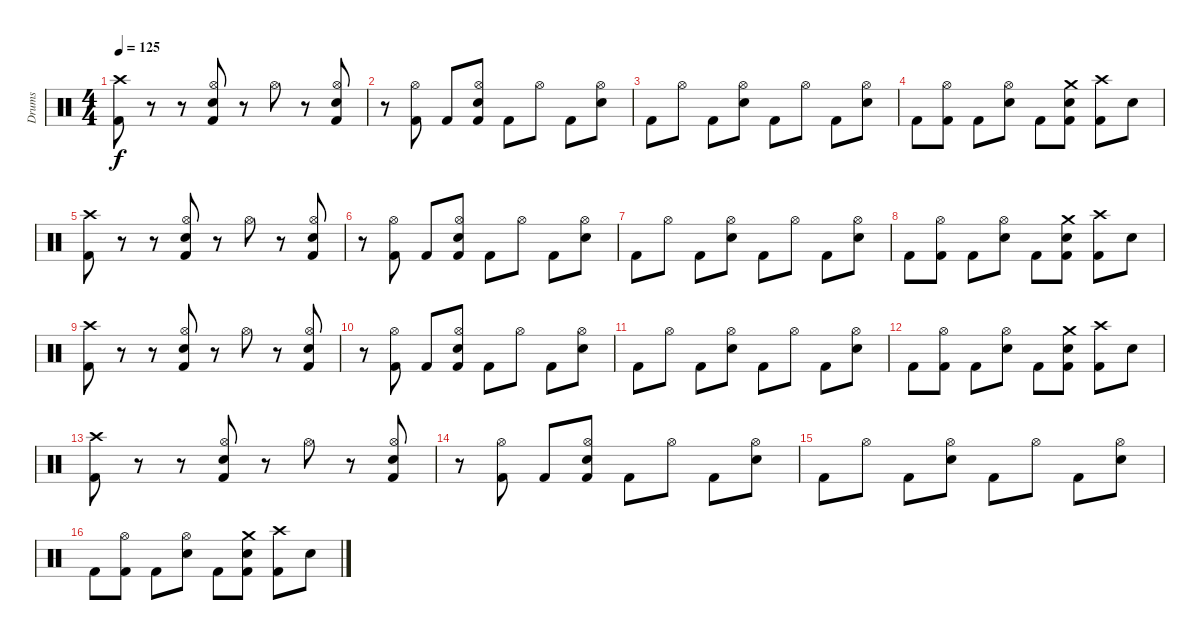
\track ("Drums" "Drums") {instrument percussion}
\staff {score}
\articulation defaults
\ts (4 4)
\tempo 125
\clef neutral
\ks c
("Crash high (hit)" "Kick (hit) 2").8{dy f} r.8 r.8 ("Hi-Hat (open)" "Snare (hit) 2" "Kick (hit) 2").8 r.8 "Hi-Hat (open)".8 r.8 ("Hi-Hat (open)" "Snare (hit) 2" "Kick (hit) 2").8 |
r.8 ("Hi-Hat (open)" "Kick (hit) 2").8 "Kick (hit) 2".8 ("Hi-Hat (open)" "Snare (hit) 2" "Kick (hit) 2").8 "Kick (hit) 2".8 "Hi-Hat (open)".8 "Kick (hit) 2".8 ("Hi-Hat (open)" "Snare (hit) 2").8 |
"Kick (hit) 2".8 "Hi-Hat (open)".8 "Kick (hit) 2".8 ("Hi-Hat (open)" "Snare (hit) 2").8 "Kick (hit) 2".8 "Hi-Hat (open)".8 "Kick (hit) 2".8 ("Hi-Hat (open)" "Snare (hit) 2").8 |
"Kick (hit) 2".8 ("Hi-Hat (open)" "Kick (hit) 2").8 "Kick (hit) 2".8 ("Hi-Hat (open)" "Snare (hit) 2").8 "Kick (hit) 2".8 ("Crash medium (hit)" "Snare (hit) 2" "Kick (hit) 2").8 ("Crash high (hit)" "Kick (hit) 2").8 "Snare (hit) 2".8 |
("Crash high (hit)" "Kick (hit) 2").8 r.8 r.8 ("Hi-Hat (open)" "Snare (hit) 2" "Kick (hit) 2").8 r.8 "Hi-Hat (open)".8 r.8 ("Hi-Hat (open)" "Snare (hit) 2" "Kick (hit) 2").8 |
r.8 ("Hi-Hat (open)" "Kick (hit) 2").8 "Kick (hit) 2".8 ("Hi-Hat (open)" "Snare (hit) 2" "Kick (hit) 2").8 "Kick (hit) 2".8 "Hi-Hat (open)".8 "Kick (hit) 2".8 ("Hi-Hat (open)" "Snare (hit) 2").8 |
"Kick (hit) 2".8 "Hi-Hat (open)".8 "Kick (hit) 2".8 ("Hi-Hat (open)" "Snare (hit) 2").8 "Kick (hit) 2".8 "Hi-Hat (open)".8 "Kick (hit) 2".8 ("Hi-Hat (open)" "Snare (hit) 2").8 |
"Kick (hit) 2".8 ("Hi-Hat (open)" "Kick (hit) 2").8 "Kick (hit) 2".8 ("Hi-Hat (open)" "Snare (hit) 2").8 "Kick (hit) 2".8 ("Crash medium (hit)" "Snare (hit) 2" "Kick (hit) 2").8 ("Crash high (hit)" "Kick (hit) 2").8 "Snare (hit) 2".8 |
("Crash high (hit)" "Kick (hit) 2").8 r.8 r.8 ("Hi-Hat (open)" "Snare (hit) 2" "Kick (hit) 2").8 r.8 "Hi-Hat (open)".8 r.8 ("Hi-Hat (open)" "Snare (hit) 2" "Kick (hit) 2").8 |
r.8 ("Hi-Hat (open)" "Kick (hit) 2").8 "Kick (hit) 2".8 ("Hi-Hat (open)" "Snare (hit) 2" "Kick (hit) 2").8 "Kick (hit) 2".8 "Hi-Hat (open)".8 "Kick (hit) 2".8 ("Hi-Hat (open)" "Snare (hit) 2").8 |
"Kick (hit) 2".8 "Hi-Hat (open)".8 "Kick (hit) 2".8 ("Hi-Hat (open)" "Snare (hit) 2").8 "Kick (hit) 2".8 "Hi-Hat (open)".8 "Kick (hit) 2".8 ("Hi-Hat (open)" "Snare (hit) 2").8 |
"Kick (hit) 2".8 ("Hi-Hat (open)" "Kick (hit) 2").8 "Kick (hit) 2".8 ("Hi-Hat (open)" "Snare (hit) 2").8 "Kick (hit) 2".8 ("Crash medium (hit)" "Snare (hit) 2" "Kick (hit) 2").8 ("Crash high (hit)" "Kick (hit) 2").8 "Snare (hit) 2".8 |
("Crash high (hit)" "Kick (hit) 2").8 r.8 r.8 ("Hi-Hat (open)" "Snare (hit) 2" "Kick (hit) 2").8 r.8 "Hi-Hat (open)".8 r.8 ("Hi-Hat (open)" "Snare (hit) 2" "Kick (hit) 2").8 |
r.8 ("Hi-Hat (open)" "Kick (hit) 2").8 "Kick (hit) 2".8 ("Hi-Hat (open)" "Snare (hit) 2" "Kick (hit) 2").8 "Kick (hit) 2".8 "Hi-Hat (open)".8 "Kick (hit) 2".8 ("Hi-Hat (open)" "Snare (hit) 2").8 |
"Kick (hit) 2".8 "Hi-Hat (open)".8 "Kick (hit) 2".8 ("Hi-Hat (open)" "Snare (hit) 2").8 "Kick (hit) 2".8 "Hi-Hat (open)".8 "Kick (hit) 2".8 ("Hi-Hat (open)" "Snare (hit) 2").8 |
"Kick (hit) 2".8 ("Hi-Hat (open)" "Kick (hit) 2").8 "Kick (hit) 2".8 ("Hi-Hat (open)" "Snare (hit) 2").8 "Kick (hit) 2".8 ("Crash medium (hit)" "Snare (hit) 2" "Kick (hit) 2").8 ("Crash high (hit)" "Kick (hit) 2").8 "Snare (hit) 2".8
